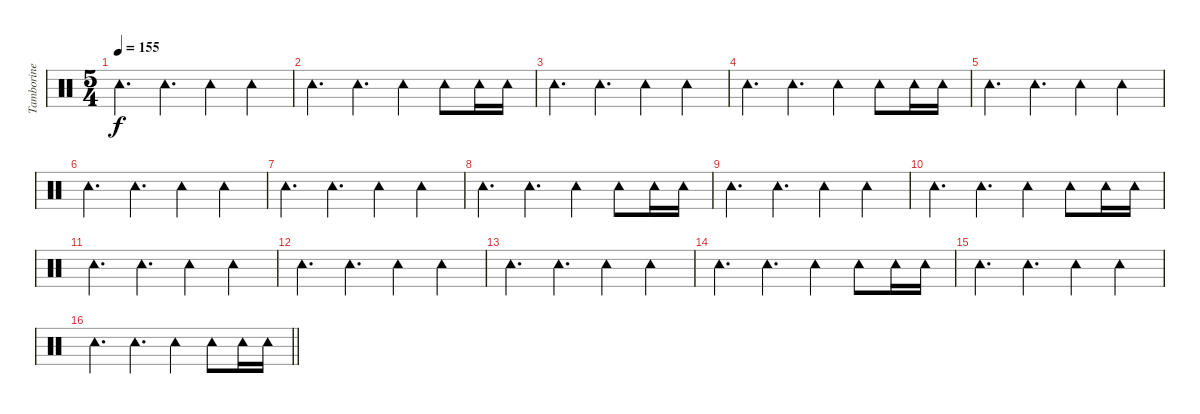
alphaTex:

\track ("Tamborine" "Tamborine") {instrument percussion}
\staff {score}
\articulation defaults
\ts (5 4)
\tempo 155
\clef neutral
\ks c "Tambourine (hit)".4{d dy f} "Tambourine (hit)".4{d} "Tambourine (hit)".4 "Tambourine (hit)".4
|
"Tambourine (hit)".4{d} "Tambourine (hit)".4{d} "Tambourine (hit)".4 "Tambourine (hit)".8 "Tambourine (hit)".16 "Tambourine (hit)".16 |
"Tambourine (hit)".4{d} "Tambourine (hit)".4{d} "Tambourine (hit)".4 "Tambourine (hit)".4 |
"Tambourine (hit)".4{d} "Tambourine (hit)".4{d} "Tambourine (hit)".4 "Tambourine (hit)".8 "Tambourine (hit)".16 "Tambourine (hit)".16 |
"Tambourine (hit)".4{d} "Tambourine (hit)".4{d} "Tambourine (hit)".4 "Tambourine (hit)".4 |
"Tambourine (hit)".4{d} "Tambourine (hit)".4{d} "Tambourine (hit)".4 "Tambourine (hit)".4 |
"Tambourine (hit)".4{d} "Tambourine (hit)".4{d} "Tambourine (hit)".4 "Tambourine (hit)".4 |
"Tambourine (hit)".4{d} "Tambourine (hit)".4{d} "Tambourine (hit)".4 "Tambourine (hit)".8 "Tambourine (hit)".16 "Tambourine (hit)".16 |
"Tambourine (hit)".4{d} "Tambourine (hit)".4{d} "Tambourine (hit)".4 "Tambourine (hit)".4 |
"Tambourine (hit)".4{d} "Tambourine (hit)".4{d} "Tambourine (hit)".4 "Tambourine (hit)".8 "Tambourine (hit)".16 "Tambourine (hit)".16 |
"Tambourine (hit)".4{d} "Tambourine (hit)".4{d} "Tambourine (hit)".4 "Tambourine (hit)".4 |
"Tambourine (hit)".4{d} "Tambourine (hit)".4{d} "Tambourine (hit)".4 "Tambourine (hit)".4 |
"Tambourine (hit)".4{d} "Tambourine (hit)".4{d} "Tambourine (hit)".4 "Tambourine (hit)".4 |
"Tambourine (hit)".4{d} "Tambourine (hit)".4{d} "Tambourine (hit)".4 "Tambourine (hit)".8 "Tambourine (hit)".16 "Tambourine (hit)".16 |
"Tambourine (hit)".4{d} "Tambourine (hit)".4{d} "Tambourine (hit)".4 "Tambourine (hit)".4 |
\barLineRight lightlight "Tambourine (hit)".4{d} "Tambourine (hit)".4{d} "Tambourine (hit)".4 "Tambourine (hit)".8 "Tambourine (hit)".16 "Tambourine (hit)".16
